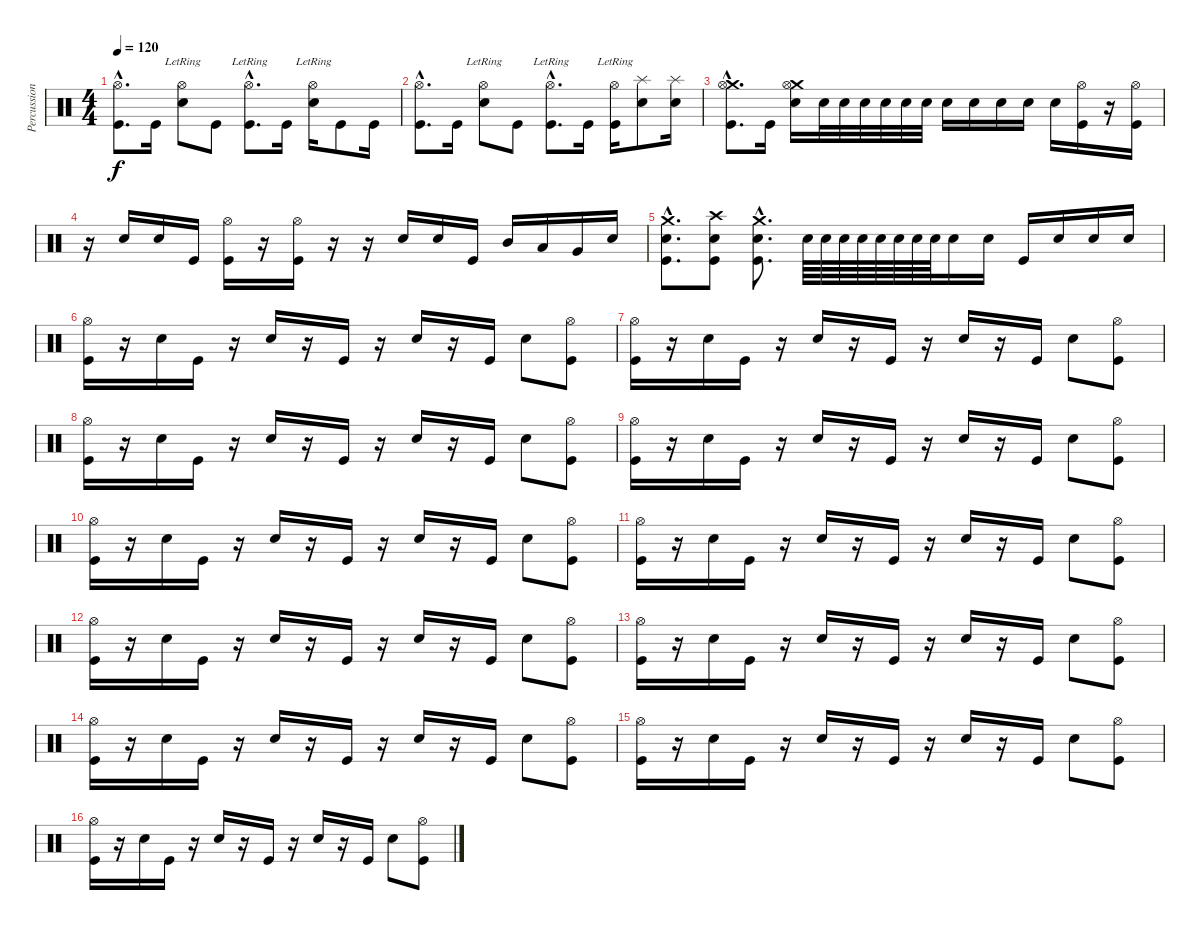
\track ("Percussions" "Percussion") {instrument percussion}
\staff {score}
\articulation defaults
\ts (4 4)
\tempo 120
\clef neutral
\ks c
("Hi-Hat (open)"{hac} "Kick (hit)"{hac}).8{d dy f} "Kick (hit)".16 ("Hi-Hat (open)"{lr} "Snare (hit) 2").8 "Kick (hit)".8 ("Hi-Hat (open)"{hac lr} "Kick (hit)"{hac}).8{d} "Kick (hit)".16 ("Hi-Hat (open)"{lr} "Snare (hit) 2").16 "Kick (hit)".8 "Kick (hit)".16 |
("Hi-Hat (open)"{hac} "Kick (hit)"{hac}).8{d} "Kick (hit)".16 ("Hi-Hat (open)"{lr} "Snare (hit) 2").8 "Kick (hit)".8 ("Hi-Hat (open)"{hac lr} "Kick (hit)"{hac}).8{d} "Kick (hit)".16 ("Hi-Hat (open)"{lr} "Kick (hit)").16 ("Splash (hit)" "Snare (hit) 2").8 ("Splash (hit)" "Snare (hit) 2").16 |
("Crash medium (hit)"{hac} "Hi-Hat (open)"{hac} "Kick (hit)"{hac}).8{d} "Kick (hit)".16 ("Crash medium (hit)" "Hi-Hat (open)" "Snare (hit) 2").16 "Snare (hit) 2".32 "Snare (hit) 2".32 "Snare (hit) 2".32 "Snare (hit) 2".32 "Snare (hit) 2".32 "Snare (hit) 2".32 "Snare (hit) 2".16 "Snare (hit) 2".16 "Snare (hit) 2".16 "Snare (hit) 2".16 "Snare (hit) 2".16 ("Hi-Hat (open)" "Kick (hit)").16 r.16 ("Hi-Hat (open)" "Kick (hit)").16 |
r.16 "Snare (hit) 2".16 "Snare (hit) 2".16 "Kick (hit)".16 ("Hi-Hat (open)" "Kick (hit)").16 r.16 ("Hi-Hat (open)" "Kick (hit)").16 r.16 r.16 "Snare (hit) 2".16 "Snare (hit) 2".16 "Kick (hit)".16 "Mid Tom (hit)".16 "Low Tom (hit)".16 "Very Low Tom (hit)".16 "Snare (hit) 2".16 |
("Crash medium (hit)"{hac} "Snare (hit) 2"{hac} "Kick (hit)"{hac}).8{d} ("Crash high (hit)" "Snare (hit) 2" "Kick (hit)").8 ("Crash medium (hit)"{hac} "Snare (hit) 2"{hac} "Kick (hit)"{hac}).8{d} "Snare (hit) 2".64 "Snare (hit) 2".64 "Snare (hit) 2".64 "Snare (hit) 2".64 "Snare (hit) 2".64 "Snare (hit) 2".64 "Snare (hit) 2".64 "Snare (hit) 2".64 "Snare (hit) 2".16 "Snare (hit) 2".16 "Kick (hit)".16 "Snare (hit) 2".16 "Snare (hit) 2".16 "Snare (hit) 2".16 |
("Hi-Hat (open)" "Kick (hit)").16 r.16 "Snare (hit) 2".16 "Kick (hit)".16 r.16 "Snare (hit) 2".16 r.16 "Kick (hit)".16 r.16 "Snare (hit) 2".16 r.16 "Kick (hit)".16 "Snare (hit) 2".8 ("Hi-Hat (open)" "Kick (hit)").8 |
("Hi-Hat (open)" "Kick (hit)").16 r.16 "Snare (hit) 2".16 "Kick (hit)".16 r.16 "Snare (hit) 2".16 r.16 "Kick (hit)".16 r.16 "Snare (hit) 2".16 r.16 "Kick (hit)".16 "Snare (hit) 2".8 ("Hi-Hat (open)" "Kick (hit)").8 |
("Hi-Hat (open)" "Kick (hit)").16 r.16 "Snare (hit) 2".16 "Kick (hit)".16 r.16 "Snare (hit) 2".16 r.16 "Kick (hit)".16 r.16 "Snare (hit) 2".16 r.16 "Kick (hit)".16 "Snare (hit) 2".8 ("Hi-Hat (open)" "Kick (hit)").8 |
("Hi-Hat (open)" "Kick (hit)").16 r.16 "Snare (hit) 2".16 "Kick (hit)".16 r.16 "Snare (hit) 2".16 r.16 "Kick (hit)".16 r.16 "Snare (hit) 2".16 r.16 "Kick (hit)".16 "Snare (hit) 2".8 ("Hi-Hat (open)" "Kick (hit)").8 |
("Hi-Hat (open)" "Kick (hit)").16 r.16 "Snare (hit) 2".16 "Kick (hit)".16 r.16 "Snare (hit) 2".16 r.16 "Kick (hit)".16 r.16 "Snare (hit) 2".16 r.16 "Kick (hit)".16 "Snare (hit) 2".8 ("Hi-Hat (open)" "Kick (hit)").8 |
("Hi-Hat (open)" "Kick (hit)").16 r.16 "Snare (hit) 2".16 "Kick (hit)".16 r.16 "Snare (hit) 2".16 r.16 "Kick (hit)".16 r.16 "Snare (hit) 2".16 r.16 "Kick (hit)".16 "Snare (hit) 2".8 ("Hi-Hat (open)" "Kick (hit)").8 |
("Hi-Hat (open)" "Kick (hit)").16 r.16 "Snare (hit) 2".16 "Kick (hit)".16 r.16 "Snare (hit) 2".16 r.16 "Kick (hit)".16 r.16 "Snare (hit) 2".16 r.16 "Kick (hit)".16 "Snare (hit) 2".8 ("Hi-Hat (open)" "Kick (hit)").8 |
("Hi-Hat (open)" "Kick (hit)").16 r.16 "Snare (hit) 2".16 "Kick (hit)".16 r.16 "Snare (hit) 2".16 r.16 "Kick (hit)".16 r.16 "Snare (hit) 2".16 r.16 "Kick (hit)".16 "Snare (hit) 2".8 ("Hi-Hat (open)" "Kick (hit)").8 |
("Hi-Hat (open)" "Kick (hit)").16 r.16 "Snare (hit) 2".16 "Kick (hit)".16 r.16 "Snare (hit) 2".16 r.16 "Kick (hit)".16 r.16 "Snare (hit) 2".16 r.16 "Kick (hit)".16 "Snare (hit) 2".8 ("Hi-Hat (open)" "Kick (hit)").8 |
("Hi-Hat (open)" "Kick (hit)").16 r.16 "Snare (hit) 2".16 "Kick (hit)".16 r.16 "Snare (hit) 2".16 r.16 "Kick (hit)".16 r.16 "Snare (hit) 2".16 r.16 "Kick (hit)".16 "Snare (hit) 2".8 ("Hi-Hat (open)" "Kick (hit)").8 |
("Hi-Hat (open)" "Kick (hit)").16 r.16 "Snare (hit) 2".16 "Kick (hit)".16 r.16 "Snare (hit) 2".16 r.16 "Kick (hit)".16 r.16 "Snare (hit) 2".16 r.16 "Kick (hit)".16 "Snare (hit) 2".8 ("Hi-Hat (open)" "Kick (hit)").8
